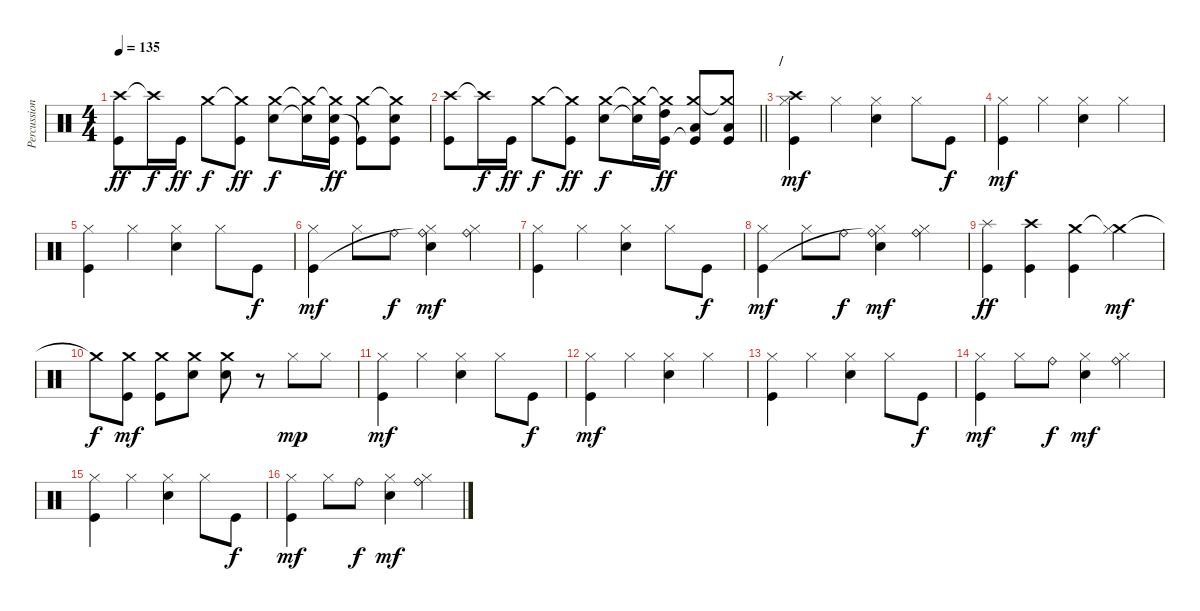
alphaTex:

\track ("Percussion" "Percussion") {instrument percussion}
\staff {score}
\articulation defaults
\ts (4 4)
\tempo 135
\clef neutral
\ks c
("Crash high (hit)" "Kick (hit)").8{dy ff} "Crash high (hit)"{t}.16{dy f} "Kick (hit)".16{dy ff} "Crash medium (hit)".8{dy f} ("Crash medium (hit)"{t} "Kick (hit)").8{dy ff} ("Crash medium (hit)" "Electric Snare (hit)").8{dy f} ("Crash medium (hit)"{t} "Electric Snare (hit)"{t}).16 ("Crash medium (hit)"{t} "Electric Snare (hit)" "Kick (hit)").16{dy ff} ("Crash medium (hit)" "Kick (hit)"{t}).8 ("Crash medium (hit)"{t} "Electric Snare (hit)" "Kick (hit)").8 |
\barLineRight lightlight
("Crash high (hit)" "Kick (hit)").8 "Crash high (hit)"{t}.16{dy f} "Kick (hit)".16{dy ff} "Crash medium (hit)".8{dy f} ("Crash medium (hit)"{t} "Kick (hit)").8{dy ff} ("Crash medium (hit)" "Electric Snare (hit)").8{dy f} ("Crash medium (hit)"{t} "Electric Snare (hit)"{t}).16 ("Crash medium (hit)"{t} "High Tom (hit)" "Kick (hit)").16{dy ff} ("Crash medium (hit)" "Low Tom (hit)" "Kick (hit)"{t}).8 ("Crash medium (hit)"{t} "Low Floor Tom (hit)" "Kick (hit)").8 |
\section ("" "/")
("Crash high (hit)" "Hi-Hat (closed)" "Kick (hit)").4{dy mf} "Hi-Hat (closed)".4 ("Hi-Hat (closed)" "Electric Snare (hit)").4 "Hi-Hat (closed)".8 "Kick (hit)".8{dy f} |
("Hi-Hat (closed)" "Kick (hit)").4{dy mf} "Hi-Hat (closed)".4 ("Hi-Hat (closed)" "Electric Snare (hit)").4 "Hi-Hat (closed)".4 |
("Hi-Hat (closed)" "Kick (hit)").4 "Hi-Hat (closed)".4 ("Hi-Hat (closed)" "Electric Snare (hit)").4 "Hi-Hat (closed)".8 "Kick (hit)".8{dy f} |
("Hi-Hat (closed)" "Kick (hit)").4{dy mf} "Hi-Hat (closed)".8 "Ride (bell)".8{dy f} ("Hi-Hat (closed)" "Ride (bell)"{t} "Electric Snare (hit)").4{dy mf} ("Hi-Hat (closed)" "Ride (bell)").4 |
("Hi-Hat (closed)" "Kick (hit)").4 "Hi-Hat (closed)".4 ("Hi-Hat (closed)" "Electric Snare (hit)").4 "Hi-Hat (closed)".8 "Kick (hit)".8{dy f} |
("Hi-Hat (closed)" "Kick (hit)").4{dy mf} "Hi-Hat (closed)".8 "Ride (bell)".8{dy f} ("Hi-Hat (closed)" "Ride (bell)"{t} "Electric Snare (hit)").4{dy mf} ("Hi-Hat (closed)" "Ride (bell)").4 |
("Splash (hit)" "Kick (hit)").4{dy ff} ("Crash high (hit)" "Kick (hit)").4 ("Crash medium (hit)" "Kick (hit)").4 ("Crash medium (hit)"{t} "Hi-Hat (closed)").4{dy mf} |
"Crash medium (hit)"{t}.8{dy f} ("Crash medium (hit)" "Kick (hit)").8{dy mf} ("Crash medium (hit)" "Kick (hit)").8 ("Crash medium (hit)" "Electric Snare (hit)").8 ("Crash medium (hit)" "Electric Snare (hit)").8 r.8 "Hi-Hat (closed)".8{dy mp} "Hi-Hat (closed)".8 |
("Hi-Hat (closed)" "Kick (hit)").4{dy mf} "Hi-Hat (closed)".4 ("Hi-Hat (closed)" "Electric Snare (hit)").4 "Hi-Hat (closed)".8 "Kick (hit)".8{dy f} |
("Hi-Hat (closed)" "Kick (hit)").4{dy mf} "Hi-Hat (closed)".4 ("Hi-Hat (closed)" "Electric Snare (hit)").4 "Hi-Hat (closed)".4 |
("Hi-Hat (closed)" "Kick (hit)").4 "Hi-Hat (closed)".4 ("Hi-Hat (closed)" "Electric Snare (hit)").4 "Hi-Hat (closed)".8 "Kick (hit)".8{dy f} |
("Hi-Hat (closed)" "Kick (hit)").4{dy mf} "Hi-Hat (closed)".8 "Ride (bell)".8{dy f} ("Hi-Hat (closed)" "Electric Snare (hit)").4{dy mf} ("Hi-Hat (closed)" "Ride (bell)").4 |
("Hi-Hat (closed)" "Kick (hit)").4 "Hi-Hat (closed)".4 ("Hi-Hat (closed)" "Electric Snare (hit)").4 "Hi-Hat (closed)".8 "Kick (hit)".8{dy f} |
("Hi-Hat (closed)" "Kick (hit)").4{dy mf} "Hi-Hat (closed)".8 "Ride (bell)".8{dy f} ("Hi-Hat (closed)" "Electric Snare (hit)").4{dy mf} ("Hi-Hat (closed)" "Ride (bell)").4
